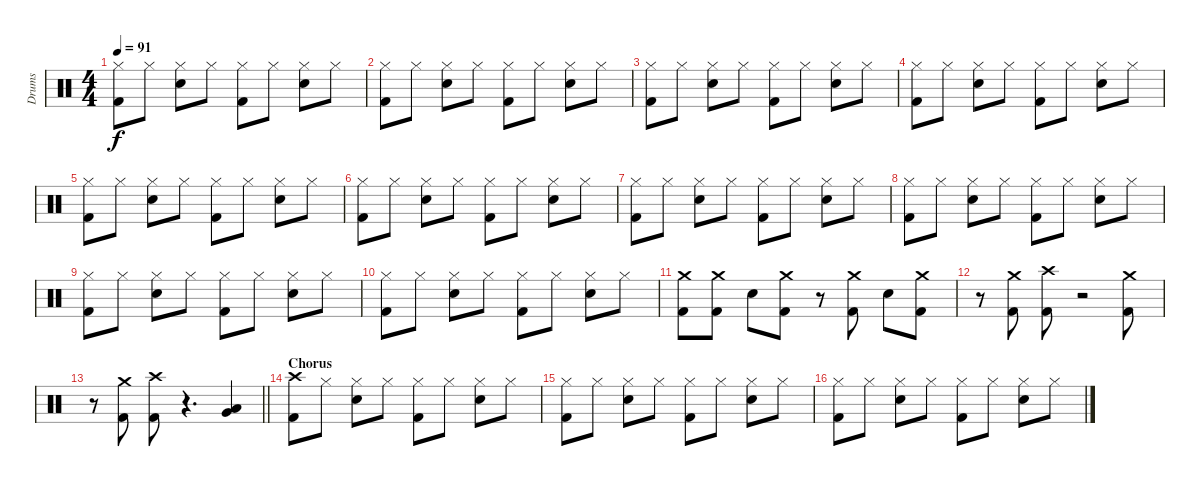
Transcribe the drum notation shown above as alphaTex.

\track ("Drums" "Drums") {instrument percussion}
\staff {score}
\articulation defaults
\ts (4 4)
\tempo 91
\clef neutral
\ks c
("Hi-Hat (closed)" "Kick (hit) 2").8{dy f} "Hi-Hat (closed)".8 ("Hi-Hat (closed)" "Electric Snare (hit)").8 "Hi-Hat (closed)".8 ("Hi-Hat (closed)" "Kick (hit) 2").8 "Hi-Hat (closed)".8 ("Hi-Hat (closed)" "Electric Snare (hit)").8 "Hi-Hat (closed)".8 |
("Hi-Hat (closed)" "Kick (hit) 2").8 "Hi-Hat (closed)".8 ("Hi-Hat (closed)" "Electric Snare (hit)").8 "Hi-Hat (closed)".8 ("Hi-Hat (closed)" "Kick (hit) 2").8 "Hi-Hat (closed)".8 ("Hi-Hat (closed)" "Electric Snare (hit)").8 "Hi-Hat (closed)".8 |
("Hi-Hat (closed)" "Kick (hit) 2").8 "Hi-Hat (closed)".8 ("Hi-Hat (closed)" "Electric Snare (hit)").8 "Hi-Hat (closed)".8 ("Hi-Hat (closed)" "Kick (hit) 2").8 "Hi-Hat (closed)".8 ("Hi-Hat (closed)" "Electric Snare (hit)").8 "Hi-Hat (closed)".8 |
("Hi-Hat (closed)" "Kick (hit) 2").8 "Hi-Hat (closed)".8 ("Hi-Hat (closed)" "Electric Snare (hit)").8 "Hi-Hat (closed)".8 ("Hi-Hat (closed)" "Kick (hit) 2").8 "Hi-Hat (closed)".8 ("Hi-Hat (closed)" "Electric Snare (hit)").8 "Hi-Hat (closed)".8 |
("Hi-Hat (closed)" "Kick (hit) 2").8 "Hi-Hat (closed)".8 ("Hi-Hat (closed)" "Electric Snare (hit)").8 "Hi-Hat (closed)".8 ("Hi-Hat (closed)" "Kick (hit) 2").8 "Hi-Hat (closed)".8 ("Hi-Hat (closed)" "Electric Snare (hit)").8 "Hi-Hat (closed)".8 |
("Hi-Hat (closed)" "Kick (hit) 2").8 "Hi-Hat (closed)".8 ("Hi-Hat (closed)" "Electric Snare (hit)").8 "Hi-Hat (closed)".8 ("Hi-Hat (closed)" "Kick (hit) 2").8 "Hi-Hat (closed)".8 ("Hi-Hat (closed)" "Electric Snare (hit)").8 "Hi-Hat (closed)".8 |
("Hi-Hat (closed)" "Kick (hit) 2").8 "Hi-Hat (closed)".8 ("Hi-Hat (closed)" "Electric Snare (hit)").8 "Hi-Hat (closed)".8 ("Hi-Hat (closed)" "Kick (hit) 2").8 "Hi-Hat (closed)".8 ("Hi-Hat (closed)" "Electric Snare (hit)").8 "Hi-Hat (closed)".8 |
("Hi-Hat (closed)" "Kick (hit) 2").8 "Hi-Hat (closed)".8 ("Hi-Hat (closed)" "Electric Snare (hit)").8 "Hi-Hat (closed)".8 ("Hi-Hat (closed)" "Kick (hit) 2").8 "Hi-Hat (closed)".8 ("Hi-Hat (closed)" "Electric Snare (hit)").8 "Hi-Hat (closed)".8 |
("Hi-Hat (closed)" "Kick (hit) 2").8 "Hi-Hat (closed)".8 ("Hi-Hat (closed)" "Electric Snare (hit)").8 "Hi-Hat (closed)".8 ("Hi-Hat (closed)" "Kick (hit) 2").8 "Hi-Hat (closed)".8 ("Hi-Hat (closed)" "Electric Snare (hit)").8 "Hi-Hat (closed)".8 |
("Hi-Hat (closed)" "Kick (hit) 2").8 "Hi-Hat (closed)".8 ("Hi-Hat (closed)" "Electric Snare (hit)").8 "Hi-Hat (closed)".8 ("Hi-Hat (closed)" "Kick (hit) 2").8 "Hi-Hat (closed)".8 ("Hi-Hat (closed)" "Electric Snare (hit)").8 "Hi-Hat (closed)".8 |
("Crash medium (hit)" "Kick (hit) 2").8 ("Crash medium (hit)" "Kick (hit) 2").8 "Electric Snare (hit)".8 ("Crash medium (hit)" "Kick (hit) 2").8 r.8 ("Crash medium (hit)" "Kick (hit) 2").8 "Electric Snare (hit)".8 ("Crash medium (hit)" "Kick (hit) 2").8 |
r.8 ("Crash medium (hit)" "Kick (hit) 2").8 ("Crash high (hit)" "Kick (hit) 2").8 r.2 ("Crash medium (hit)" "Kick (hit) 2").8 |
\barLineRight lightlight
r.8 ("Crash medium (hit)" "Kick (hit) 2").8 ("Crash high (hit)" "Kick (hit) 2").8 r.4{d} ("Very Low Tom (hit)" "Low Floor Tom (hit)").4 |
\section ("" "Chorus")
("Crash high (hit)" "Kick (hit) 2").8 "Hi-Hat (closed)".8 ("Hi-Hat (closed)" "Electric Snare (hit)").8 "Hi-Hat (closed)".8 ("Hi-Hat (closed)" "Kick (hit) 2").8 "Hi-Hat (closed)".8 ("Hi-Hat (closed)" "Electric Snare (hit)").8 "Hi-Hat (closed)".8 |
("Hi-Hat (closed)" "Kick (hit) 2").8 "Hi-Hat (closed)".8 ("Hi-Hat (closed)" "Electric Snare (hit)").8 "Hi-Hat (closed)".8 ("Hi-Hat (closed)" "Kick (hit) 2").8 "Hi-Hat (closed)".8 ("Hi-Hat (closed)" "Electric Snare (hit)").8 "Hi-Hat (closed)".8 |
("Hi-Hat (closed)" "Kick (hit) 2").8 "Hi-Hat (closed)".8 ("Hi-Hat (closed)" "Electric Snare (hit)").8 "Hi-Hat (closed)".8 ("Hi-Hat (closed)" "Kick (hit) 2").8 "Hi-Hat (closed)".8 ("Hi-Hat (closed)" "Electric Snare (hit)").8 "Hi-Hat (closed)".8
